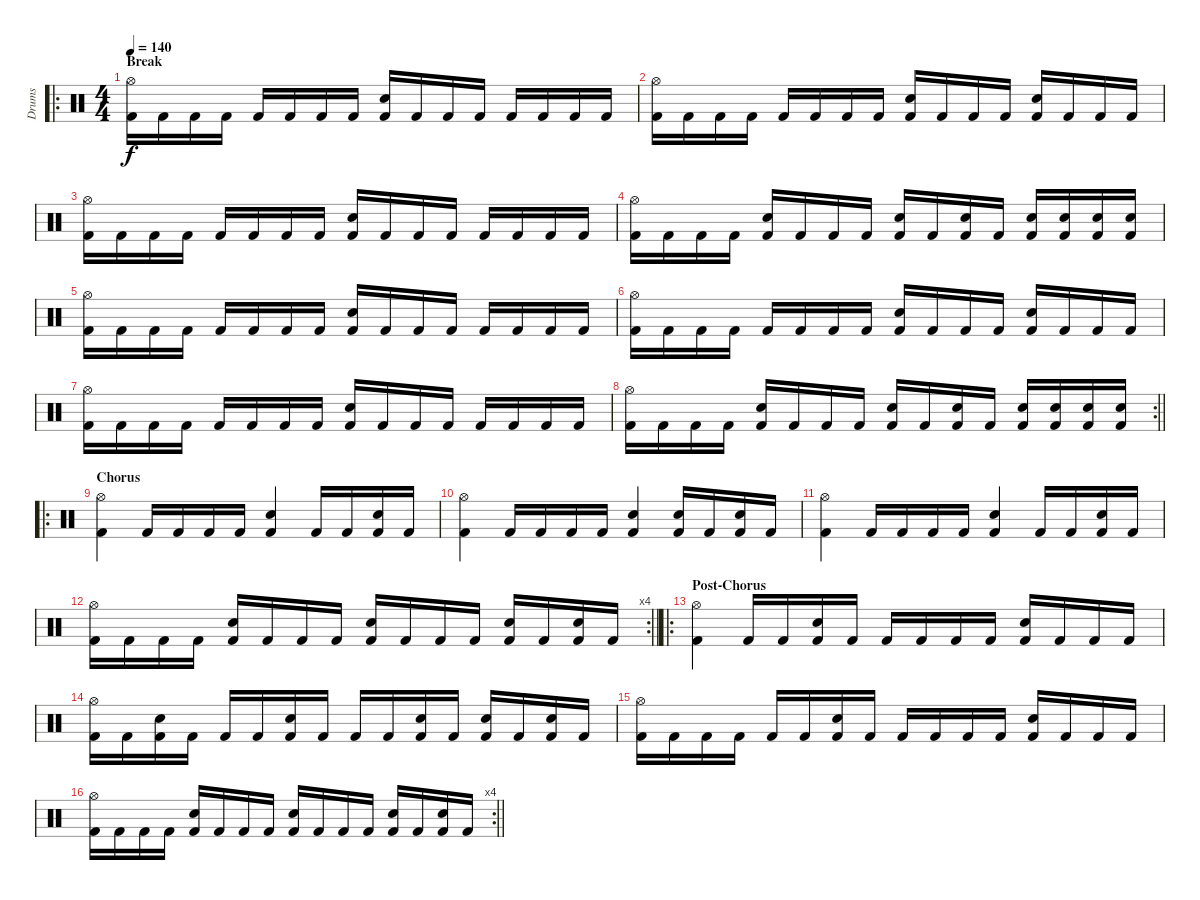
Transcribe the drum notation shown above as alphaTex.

\track ("Drums" "Drums") {instrument percussion}
\staff {score}
\articulation defaults
\ro
\ts (4 4)
\section ("" "Break")
\tempo 140
\clef neutral
\ks c
("Hi-Hat (open)" "Kick (hit) 2").16{dy f} "Kick (hit) 2".16 "Kick (hit) 2".16 "Kick (hit) 2".16 "Kick (hit) 2".16 "Kick (hit) 2".16 "Kick (hit) 2".16 "Kick (hit) 2".16 ("Snare (hit) 2" "Kick (hit) 2").16 "Kick (hit) 2".16 "Kick (hit) 2".16 "Kick (hit) 2".16 "Kick (hit) 2".16 "Kick (hit) 2".16 "Kick (hit) 2".16 "Kick (hit) 2".16 |
("Hi-Hat (open)" "Kick (hit) 2").16 "Kick (hit) 2".16 "Kick (hit) 2".16 "Kick (hit) 2".16 "Kick (hit) 2".16 "Kick (hit) 2".16 "Kick (hit) 2".16 "Kick (hit) 2".16 ("Snare (hit) 2" "Kick (hit) 2").16 "Kick (hit) 2".16 "Kick (hit) 2".16 "Kick (hit) 2".16 ("Snare (hit) 2" "Kick (hit) 2").16 "Kick (hit) 2".16 "Kick (hit) 2".16 "Kick (hit) 2".16 |
("Hi-Hat (open)" "Kick (hit) 2").16 "Kick (hit) 2".16 "Kick (hit) 2".16 "Kick (hit) 2".16 "Kick (hit) 2".16 "Kick (hit) 2".16 "Kick (hit) 2".16 "Kick (hit) 2".16 ("Snare (hit) 2" "Kick (hit) 2").16 "Kick (hit) 2".16 "Kick (hit) 2".16 "Kick (hit) 2".16 "Kick (hit) 2".16 "Kick (hit) 2".16 "Kick (hit) 2".16 "Kick (hit) 2".16 |
("Hi-Hat (open)" "Kick (hit) 2").16 "Kick (hit) 2".16 "Kick (hit) 2".16 "Kick (hit) 2".16 ("Snare (hit) 2" "Kick (hit) 2").16 "Kick (hit) 2".16 "Kick (hit) 2".16 "Kick (hit) 2".16 ("Snare (hit) 2" "Kick (hit) 2").16 "Kick (hit) 2".16 ("Snare (hit) 2" "Kick (hit) 2").16 "Kick (hit) 2".16 ("Snare (hit) 2" "Kick (hit) 2").16 ("Snare (hit) 2" "Kick (hit) 2").16 ("Snare (hit) 2" "Kick (hit) 2").16 ("Snare (hit) 2" "Kick (hit) 2").16 |
("Hi-Hat (open)" "Kick (hit) 2").16 "Kick (hit) 2".16 "Kick (hit) 2".16 "Kick (hit) 2".16 "Kick (hit) 2".16 "Kick (hit) 2".16 "Kick (hit) 2".16 "Kick (hit) 2".16 ("Snare (hit) 2" "Kick (hit) 2").16 "Kick (hit) 2".16 "Kick (hit) 2".16 "Kick (hit) 2".16 "Kick (hit) 2".16 "Kick (hit) 2".16 "Kick (hit) 2".16 "Kick (hit) 2".16 |
("Hi-Hat (open)" "Kick (hit) 2").16 "Kick (hit) 2".16 "Kick (hit) 2".16 "Kick (hit) 2".16 "Kick (hit) 2".16 "Kick (hit) 2".16 "Kick (hit) 2".16 "Kick (hit) 2".16 ("Snare (hit) 2" "Kick (hit) 2").16 "Kick (hit) 2".16 "Kick (hit) 2".16 "Kick (hit) 2".16 ("Snare (hit) 2" "Kick (hit) 2").16 "Kick (hit) 2".16 "Kick (hit) 2".16 "Kick (hit) 2".16 |
("Hi-Hat (open)" "Kick (hit) 2").16 "Kick (hit) 2".16 "Kick (hit) 2".16 "Kick (hit) 2".16 "Kick (hit) 2".16 "Kick (hit) 2".16 "Kick (hit) 2".16 "Kick (hit) 2".16 ("Snare (hit) 2" "Kick (hit) 2").16 "Kick (hit) 2".16 "Kick (hit) 2".16 "Kick (hit) 2".16 "Kick (hit) 2".16 "Kick (hit) 2".16 "Kick (hit) 2".16 "Kick (hit) 2".16 |
\rc 2
\barLineRight lightlight
("Hi-Hat (open)" "Kick (hit) 2").16 "Kick (hit) 2".16 "Kick (hit) 2".16 "Kick (hit) 2".16 ("Snare (hit) 2" "Kick (hit) 2").16 "Kick (hit) 2".16 "Kick (hit) 2".16 "Kick (hit) 2".16 ("Snare (hit) 2" "Kick (hit) 2").16 "Kick (hit) 2".16 ("Snare (hit) 2" "Kick (hit) 2").16 "Kick (hit) 2".16 ("Snare (hit) 2" "Kick (hit) 2").16 ("Snare (hit) 2" "Kick (hit) 2").16 ("Snare (hit) 2" "Kick (hit) 2").16 ("Snare (hit) 2" "Kick (hit) 2").16 |
\ro
\section ("" "Chorus")
("Hi-Hat (open)" "Kick (hit) 2").4 "Kick (hit) 2".16 "Kick (hit) 2".16 "Kick (hit) 2".16 "Kick (hit) 2".16 ("Snare (hit) 2" "Kick (hit) 2").4 "Kick (hit) 2".16 "Kick (hit) 2".16 ("Snare (hit) 2" "Kick (hit) 2").16 "Kick (hit) 2".16 |
("Hi-Hat (open)" "Kick (hit) 2").4 "Kick (hit) 2".16 "Kick (hit) 2".16 "Kick (hit) 2".16 "Kick (hit) 2".16 ("Snare (hit) 2" "Kick (hit) 2").4 ("Snare (hit) 2" "Kick (hit) 2").16 "Kick (hit) 2".16 ("Snare (hit) 2" "Kick (hit) 2").16 "Kick (hit) 2".16 |
("Hi-Hat (open)" "Kick (hit) 2").4 "Kick (hit) 2".16 "Kick (hit) 2".16 "Kick (hit) 2".16 "Kick (hit) 2".16 ("Snare (hit) 2" "Kick (hit) 2").4 "Kick (hit) 2".16 "Kick (hit) 2".16 ("Snare (hit) 2" "Kick (hit) 2").16 "Kick (hit) 2".16 |
\rc 4
\barLineRight lightlight
("Hi-Hat (open)" "Kick (hit) 2").16 "Kick (hit) 2".16 "Kick (hit) 2".16 "Kick (hit) 2".16 ("Snare (hit) 2" "Kick (hit) 2").16 "Kick (hit) 2".16 "Kick (hit) 2".16 "Kick (hit) 2".16 ("Snare (hit) 2" "Kick (hit) 2").16 "Kick (hit) 2".16 "Kick (hit) 2".16 "Kick (hit) 2".16 ("Snare (hit) 2" "Kick (hit) 2").16 "Kick (hit) 2".16 ("Snare (hit) 2" "Kick (hit) 2").16 "Kick (hit) 2".16 |
\ro
\section ("" "Post-Chorus")
("Hi-Hat (open)" "Kick (hit) 2").4 "Kick (hit) 2".16 "Kick (hit) 2".16 ("Snare (hit) 2" "Kick (hit) 2").16 "Kick (hit) 2".16 "Kick (hit) 2".16 "Kick (hit) 2".16 "Kick (hit) 2".16 "Kick (hit) 2".16 ("Snare (hit) 2" "Kick (hit) 2").16 "Kick (hit) 2".16 "Kick (hit) 2".16 "Kick (hit) 2".16 |
("Hi-Hat (open)" "Kick (hit) 2").16 "Kick (hit) 2".16 ("Snare (hit) 2" "Kick (hit) 2").16 "Kick (hit) 2".16 "Kick (hit) 2".16 "Kick (hit) 2".16 ("Snare (hit) 2" "Kick (hit) 2").16 "Kick (hit) 2".16 "Kick (hit) 2".16 "Kick (hit) 2".16 ("Snare (hit) 2" "Kick (hit) 2").16 "Kick (hit) 2".16 ("Snare (hit) 2" "Kick (hit) 2").16 "Kick (hit) 2".16 ("Snare (hit) 2" "Kick (hit) 2").16 "Kick (hit) 2".16 |
("Hi-Hat (open)" "Kick (hit) 2").16 "Kick (hit) 2".16 "Kick (hit) 2".16 "Kick (hit) 2".16 "Kick (hit) 2".16 "Kick (hit) 2".16 ("Snare (hit) 2" "Kick (hit) 2").16 "Kick (hit) 2".16 "Kick (hit) 2".16 "Kick (hit) 2".16 "Kick (hit) 2".16 "Kick (hit) 2".16 ("Snare (hit) 2" "Kick (hit) 2").16 "Kick (hit) 2".16 "Kick (hit) 2".16 "Kick (hit) 2".16 |
\rc 4
\barLineRight lightlight
("Hi-Hat (open)" "Kick (hit) 2").16 "Kick (hit) 2".16 "Kick (hit) 2".16 "Kick (hit) 2".16 ("Snare (hit) 2" "Kick (hit) 2").16 "Kick (hit) 2".16 "Kick (hit) 2".16 "Kick (hit) 2".16 ("Snare (hit) 2" "Kick (hit) 2").16 "Kick (hit) 2".16 "Kick (hit) 2".16 "Kick (hit) 2".16 ("Snare (hit) 2" "Kick (hit) 2").16 "Kick (hit) 2".16 ("Snare (hit) 2" "Kick (hit) 2").16 "Kick (hit) 2".16
